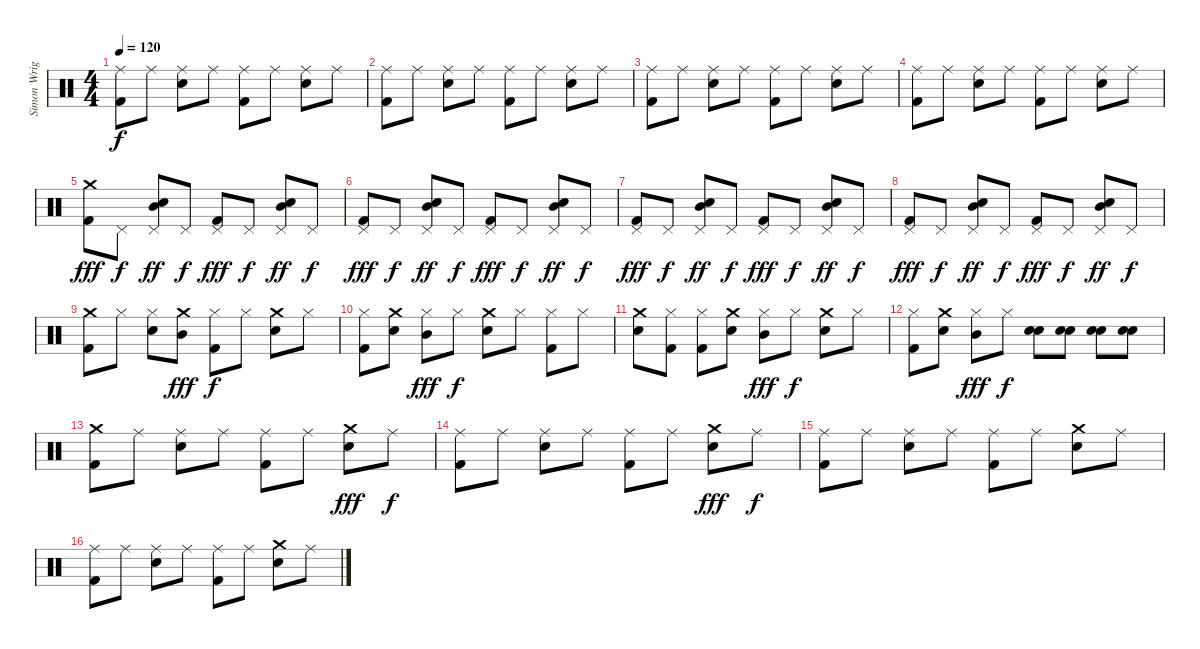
\track ("Simon Wright" "Simon Wrig") {instrument percussion}
\staff {score}
\articulation defaults
\ts (4 4)
\tempo 120
\clef neutral
\ks c
("Ride (middle)" "Kick (hit) 2").8{dy f} "Ride (middle)".8 ("Ride (middle)" "Snare (hit) 2").8 "Ride (middle)".8 ("Ride (middle)" "Kick (hit) 2").8 "Ride (middle)".8 ("Ride (middle)" "Snare (hit) 2").8 "Ride (middle)".8 |
("Ride (middle)" "Kick (hit) 2").8 "Ride (middle)".8 ("Ride (middle)" "Snare (hit) 2").8 "Ride (middle)".8 ("Ride (middle)" "Kick (hit) 2").8 "Ride (middle)".8 ("Ride (middle)" "Snare (hit) 2").8 "Ride (middle)".8 |
("Ride (middle)" "Kick (hit) 2").8 "Ride (middle)".8 ("Ride (middle)" "Snare (hit) 2").8 "Ride (middle)".8 ("Ride (middle)" "Kick (hit) 2").8 "Ride (middle)".8 ("Ride (middle)" "Snare (hit) 2").8 "Ride (middle)".8 |
("Ride (middle)" "Kick (hit) 2").8 "Ride (middle)".8 ("Ride (middle)" "Snare (hit) 2").8 "Ride (middle)".8 ("Ride (middle)" "Kick (hit) 2").8 "Ride (middle)".8 ("Ride (middle)" "Snare (hit) 2").8 "Ride (middle)".8 |
("Crash medium (hit)" "Kick (hit) 2").8{dy fff} "Pedal Hi-Hat (hit)".8{dy f} ("Pedal Hi-Hat (hit)" "Snare (hit) 2" "Mid Tom (hit)").8{dy ff} "Pedal Hi-Hat (hit)".8{dy f} ("Pedal Hi-Hat (hit)" "Kick (hit) 2").8{dy fff} "Pedal Hi-Hat (hit)".8{dy f} ("Pedal Hi-Hat (hit)" "Snare (hit) 2" "Mid Tom (hit)").8{dy ff} "Pedal Hi-Hat (hit)".8{dy f} |
("Pedal Hi-Hat (hit)" "Kick (hit) 2").8{dy fff} "Pedal Hi-Hat (hit)".8{dy f} ("Pedal Hi-Hat (hit)" "Snare (hit) 2" "Mid Tom (hit)").8{dy ff} "Pedal Hi-Hat (hit)".8{dy f} ("Pedal Hi-Hat (hit)" "Kick (hit) 2").8{dy fff} "Pedal Hi-Hat (hit)".8{dy f} ("Pedal Hi-Hat (hit)" "Snare (hit) 2" "Mid Tom (hit)").8{dy ff} "Pedal Hi-Hat (hit)".8{dy f} |
("Pedal Hi-Hat (hit)" "Kick (hit) 2").8{dy fff} "Pedal Hi-Hat (hit)".8{dy f} ("Pedal Hi-Hat (hit)" "Snare (hit) 2" "Mid Tom (hit)").8{dy ff} "Pedal Hi-Hat (hit)".8{dy f} ("Pedal Hi-Hat (hit)" "Kick (hit) 2").8{dy fff} "Pedal Hi-Hat (hit)".8{dy f} ("Pedal Hi-Hat (hit)" "Snare (hit) 2" "Mid Tom (hit)").8{dy ff} "Pedal Hi-Hat (hit)".8{dy f} |
("Pedal Hi-Hat (hit)" "Kick (hit) 2").8{dy fff} "Pedal Hi-Hat (hit)".8{dy f} ("Pedal Hi-Hat (hit)" "Snare (hit) 2" "Mid Tom (hit)").8{dy ff} "Pedal Hi-Hat (hit)".8{dy f} ("Pedal Hi-Hat (hit)" "Kick (hit) 2").8{dy fff} "Pedal Hi-Hat (hit)".8{dy f} ("Pedal Hi-Hat (hit)" "Snare (hit) 2" "Mid Tom (hit)").8{dy ff} "Pedal Hi-Hat (hit)".8{dy f} |
("Crash medium (hit)" "Kick (hit) 2").8 "Hi-Hat (closed)".8 ("Hi-Hat (closed)" "Snare (hit) 2").8 ("Crash medium (hit)" "Mid Tom (hit)").8{dy fff} ("Hi-Hat (closed)" "Kick (hit) 2").8{dy f} "Hi-Hat (closed)".8 ("Crash medium (hit)" "Snare (hit) 2").8 "Hi-Hat (closed)".8 |
("Hi-Hat (closed)" "Kick (hit) 2").8 ("Crash medium (hit)" "Snare (hit) 2").8 ("Hi-Hat (closed)" "Mid Tom (hit)").8{dy fff} "Hi-Hat (closed)".8{dy f} ("Crash medium (hit)" "Snare (hit) 2").8 "Hi-Hat (closed)".8 ("Hi-Hat (closed)" "Kick (hit) 2").8 "Hi-Hat (closed)".8 |
("Crash medium (hit)" "Snare (hit) 2").8 ("Hi-Hat (closed)" "Kick (hit) 2").8 ("Hi-Hat (closed)" "Kick (hit) 2").8 ("Crash medium (hit)" "Snare (hit) 2").8 ("Hi-Hat (closed)" "Mid Tom (hit)").8{dy fff} "Hi-Hat (closed)".8{dy f} ("Crash medium (hit)" "Snare (hit) 2").8 "Hi-Hat (closed)".8 |
("Hi-Hat (closed)" "Kick (hit) 2").8 ("Crash medium (hit)" "Snare (hit) 2").8 ("Hi-Hat (closed)" "Mid Tom (hit)").8{dy fff} "Hi-Hat (closed)".8{dy f} ("Snare (hit) 2" "Snare (hit) 2").8 ("Snare (hit) 2" "Snare (hit) 2").8 ("Snare (hit) 2" "Snare (hit) 2").8 ("Snare (hit) 2" "Snare (hit) 2").8 |
("Crash medium (hit)" "Kick (hit) 2").8 "Ride (middle)".8 ("Ride (middle)" "Snare (hit) 2").8 "Ride (middle)".8 ("Ride (middle)" "Kick (hit) 2").8 "Ride (middle)".8 ("Crash medium (hit)" "Snare (hit) 2").8{dy fff} "Ride (middle)".8{dy f} |
("Ride (middle)" "Kick (hit) 2").8 "Ride (middle)".8 ("Ride (middle)" "Snare (hit) 2").8 "Ride (middle)".8 ("Ride (middle)" "Kick (hit) 2").8 "Ride (middle)".8 ("Crash medium (hit)" "Snare (hit) 2").8{dy fff} "Ride (middle)".8{dy f} |
("Ride (middle)" "Kick (hit) 2").8 "Ride (middle)".8 ("Ride (middle)" "Snare (hit) 2").8 "Ride (middle)".8 ("Ride (middle)" "Kick (hit) 2").8 "Ride (middle)".8 ("Crash medium (hit)" "Snare (hit) 2").8 "Ride (middle)".8 |
("Ride (middle)" "Kick (hit) 2").8 "Ride (middle)".8 ("Ride (middle)" "Snare (hit) 2").8 "Ride (middle)".8 ("Ride (middle)" "Kick (hit) 2").8 "Ride (middle)".8 ("Crash medium (hit)" "Snare (hit) 2").8 "Ride (middle)".8
